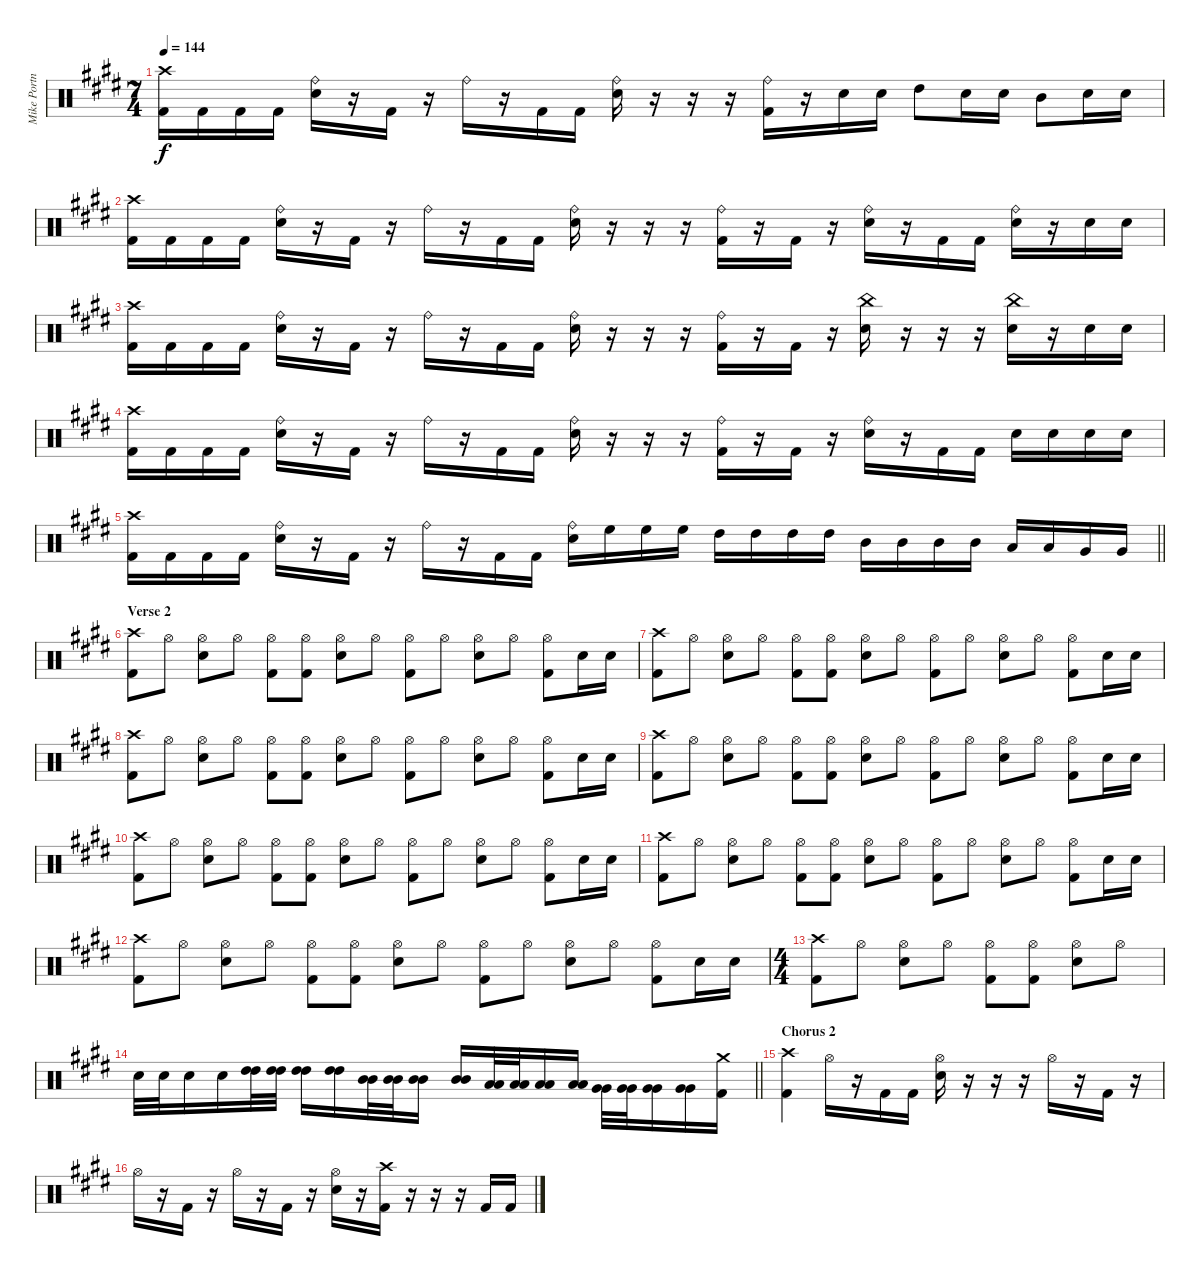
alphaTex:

\track ("Mike Portnoy" "Mike Portn") {instrument percussion}
\staff {score}
\articulation defaults
\ts (7 4)
\tempo 144
\clef neutral
\ks e
("Crash high (hit)" "Kick (hit) 2").16{dy f} "Kick (hit) 2".16 "Kick (hit) 2".16 "Kick (hit) 2".16 ("Ride (bell)" "Snare (hit) 2").16 r.16 "Kick (hit) 2".16 r.16 "Ride (bell)".16 r.16 "Kick (hit) 2".16 "Kick (hit) 2".16 ("Ride (bell)" "Snare (hit) 2").16 r.16 r.16 r.16 ("Ride (bell)" "Kick (hit) 2").16 r.16 "Snare (hit) 2".16 "Snare (hit) 2".16 "High Tom (hit)".8 "Snare (hit) 2".16 "Snare (hit) 2".16 "Mid Tom (hit)".8 "Snare (hit) 2".16 "Snare (hit) 2".16 |
("Crash high (hit)" "Kick (hit) 2").16 "Kick (hit) 2".16 "Kick (hit) 2".16 "Kick (hit) 2".16 ("Ride (bell)" "Snare (hit) 2").16 r.16 "Kick (hit) 2".16 r.16 "Ride (bell)".16 r.16 "Kick (hit) 2".16 "Kick (hit) 2".16 ("Ride (bell)" "Snare (hit) 2").16 r.16 r.16 r.16 ("Ride (bell)" "Kick (hit) 2").16 r.16 "Kick (hit) 2".16 r.16 ("Ride (bell)" "Snare (hit) 2").16 r.16 "Kick (hit) 2".16 "Kick (hit) 2".16 ("Ride (bell)" "Snare (hit) 2").16 r.16 "Snare (hit) 2".16 "Snare (hit) 2".16 |
("Crash high (hit)" "Kick (hit) 2").16 "Kick (hit) 2".16 "Kick (hit) 2".16 "Kick (hit) 2".16 ("Ride (bell)" "Snare (hit) 2").16 r.16 "Kick (hit) 2".16 r.16 "Ride (bell)".16 r.16 "Kick (hit) 2".16 "Kick (hit) 2".16 ("Ride (bell)" "Snare (hit) 2").16 r.16 r.16 r.16 ("Ride (bell)" "Kick (hit) 2").16 r.16 "Kick (hit) 2".16 r.16 ("China (hit)" "Snare (hit) 2").16 r.16 r.16 r.16 ("China (hit)" "Snare (hit) 2").16 r.16 "Snare (hit) 2".16 "Snare (hit) 2".16 |
("Crash high (hit)" "Kick (hit) 2").16 "Kick (hit) 2".16 "Kick (hit) 2".16 "Kick (hit) 2".16 ("Ride (bell)" "Snare (hit) 2").16 r.16 "Kick (hit) 2".16 r.16 "Ride (bell)".16 r.16 "Kick (hit) 2".16 "Kick (hit) 2".16 ("Ride (bell)" "Snare (hit) 2").16 r.16 r.16 r.16 ("Ride (bell)" "Kick (hit) 2").16 r.16 "Kick (hit) 2".16 r.16 ("Ride (bell)" "Snare (hit) 2").16 r.16 "Kick (hit) 2".16 "Kick (hit) 2".16 "Snare (hit) 2".16 "Snare (hit) 2".16 "Snare (hit) 2".16 "Snare (hit) 2".16 |
\barLineRight lightlight
("Crash high (hit)" "Kick (hit) 2").16 "Kick (hit) 2".16 "Kick (hit) 2".16 "Kick (hit) 2".16 ("Ride (bell)" "Snare (hit) 2").16 r.16 "Kick (hit) 2".16 r.16 "Ride (bell)".16 r.16 "Kick (hit) 2".16 "Kick (hit) 2".16 ("Ride (bell)" "Snare (hit) 2").16 "High Floor Tom (hit)".16 "High Floor Tom (hit)".16 "High Floor Tom (hit)".16 "High Tom (hit)".16 "High Tom (hit)".16 "High Tom (hit)".16 "High Tom (hit)".16 "Mid Tom (hit)".16 "Mid Tom (hit)".16 "Mid Tom (hit)".16 "Mid Tom (hit)".16 "Low Tom (hit)".16 "Low Tom (hit)".16 "Very Low Tom (hit)".16 "Very Low Tom (hit)".16 |
\section ("" "Verse 2")
("Kick (hit) 2" "Crash high (hit)").8 "Hi-Hat (open)".8 ("Snare (hit) 2" "Hi-Hat (open)").8 "Hi-Hat (open)".8 ("Kick (hit) 2" "Hi-Hat (open)").8 ("Kick (hit) 2" "Hi-Hat (open)").8 ("Snare (hit) 2" "Hi-Hat (open)").8 "Hi-Hat (open)".8 ("Kick (hit) 2" "Hi-Hat (open)").8 "Hi-Hat (open)".8 ("Snare (hit) 2" "Hi-Hat (open)").8 "Hi-Hat (open)".8 ("Kick (hit) 2" "Hi-Hat (open)").8 "Snare (hit) 2".16 "Snare (hit) 2".16 |
("Kick (hit) 2" "Crash high (hit)").8 "Hi-Hat (open)".8 ("Snare (hit) 2" "Hi-Hat (open)").8 "Hi-Hat (open)".8 ("Kick (hit) 2" "Hi-Hat (open)").8 ("Kick (hit) 2" "Hi-Hat (open)").8 ("Snare (hit) 2" "Hi-Hat (open)").8 "Hi-Hat (open)".8 ("Kick (hit) 2" "Hi-Hat (open)").8 "Hi-Hat (open)".8 ("Snare (hit) 2" "Hi-Hat (open)").8 "Hi-Hat (open)".8 ("Kick (hit) 2" "Hi-Hat (open)").8 "Snare (hit) 2".16 "Snare (hit) 2".16 |
("Kick (hit) 2" "Crash high (hit)").8 "Hi-Hat (open)".8 ("Snare (hit) 2" "Hi-Hat (open)").8 "Hi-Hat (open)".8 ("Kick (hit) 2" "Hi-Hat (open)").8 ("Kick (hit) 2" "Hi-Hat (open)").8 ("Snare (hit) 2" "Hi-Hat (open)").8 "Hi-Hat (open)".8 ("Kick (hit) 2" "Hi-Hat (open)").8 "Hi-Hat (open)".8 ("Snare (hit) 2" "Hi-Hat (open)").8 "Hi-Hat (open)".8 ("Kick (hit) 2" "Hi-Hat (open)").8 "Snare (hit) 2".16 "Snare (hit) 2".16 |
("Kick (hit) 2" "Crash high (hit)").8 "Hi-Hat (open)".8 ("Snare (hit) 2" "Hi-Hat (open)").8 "Hi-Hat (open)".8 ("Kick (hit) 2" "Hi-Hat (open)").8 ("Kick (hit) 2" "Hi-Hat (open)").8 ("Snare (hit) 2" "Hi-Hat (open)").8 "Hi-Hat (open)".8 ("Kick (hit) 2" "Hi-Hat (open)").8 "Hi-Hat (open)".8 ("Snare (hit) 2" "Hi-Hat (open)").8 "Hi-Hat (open)".8 ("Kick (hit) 2" "Hi-Hat (open)").8 "Snare (hit) 2".16 "Snare (hit) 2".16 |
("Kick (hit) 2" "Crash high (hit)").8 "Hi-Hat (open)".8 ("Snare (hit) 2" "Hi-Hat (open)").8 "Hi-Hat (open)".8 ("Kick (hit) 2" "Hi-Hat (open)").8 ("Kick (hit) 2" "Hi-Hat (open)").8 ("Snare (hit) 2" "Hi-Hat (open)").8 "Hi-Hat (open)".8 ("Kick (hit) 2" "Hi-Hat (open)").8 "Hi-Hat (open)".8 ("Snare (hit) 2" "Hi-Hat (open)").8 "Hi-Hat (open)".8 ("Kick (hit) 2" "Hi-Hat (open)").8 "Snare (hit) 2".16 "Snare (hit) 2".16 |
("Kick (hit) 2" "Crash high (hit)").8 "Hi-Hat (open)".8 ("Snare (hit) 2" "Hi-Hat (open)").8 "Hi-Hat (open)".8 ("Kick (hit) 2" "Hi-Hat (open)").8 ("Kick (hit) 2" "Hi-Hat (open)").8 ("Snare (hit) 2" "Hi-Hat (open)").8 "Hi-Hat (open)".8 ("Kick (hit) 2" "Hi-Hat (open)").8 "Hi-Hat (open)".8 ("Snare (hit) 2" "Hi-Hat (open)").8 "Hi-Hat (open)".8 ("Kick (hit) 2" "Hi-Hat (open)").8 "Snare (hit) 2".16 "Snare (hit) 2".16 |
("Kick (hit) 2" "Crash high (hit)").8 "Hi-Hat (open)".8 ("Snare (hit) 2" "Hi-Hat (open)").8 "Hi-Hat (open)".8 ("Kick (hit) 2" "Hi-Hat (open)").8 ("Kick (hit) 2" "Hi-Hat (open)").8 ("Snare (hit) 2" "Hi-Hat (open)").8 "Hi-Hat (open)".8 ("Kick (hit) 2" "Hi-Hat (open)").8 "Hi-Hat (open)".8 ("Snare (hit) 2" "Hi-Hat (open)").8 "Hi-Hat (open)".8 ("Kick (hit) 2" "Hi-Hat (open)").8 "Snare (hit) 2".16 "Snare (hit) 2".16 |
\ts (4 4)
("Kick (hit) 2" "Crash high (hit)").8 "Hi-Hat (open)".8 ("Snare (hit) 2" "Hi-Hat (open)").8 "Hi-Hat (open)".8 ("Kick (hit) 2" "Hi-Hat (open)").8 ("Kick (hit) 2" "Hi-Hat (open)").8 ("Snare (hit) 2" "Hi-Hat (open)").8 "Hi-Hat (open)".8 |
\barLineRight lightlight "Snare (hit) 2".32 "Snare (hit) 2".32 "Snare (hit) 2".16 "Snare (hit) 2".16
("High Tom (hit)" "High Tom (hit)").32 ("High Tom (hit)" "High Tom (hit)").32 ("High Tom (hit)" "High Tom (hit)").16 ("High Tom (hit)" "High Tom (hit)").16 ("Mid Tom (hit)" "Mid Tom (hit)").32 ("Mid Tom (hit)" "Mid Tom (hit)").32 ("Mid Tom (hit)" "Mid Tom (hit)").16 ("Mid Tom (hit)" "Mid Tom (hit)").16 ("Low Tom (hit)" "Low Tom (hit)").32 ("Low Tom (hit)" "Low Tom (hit)").32 ("Low Tom (hit)" "Low Tom (hit)").16 ("Low Tom (hit)" "Low Tom (hit)").16 ("Very Low Tom (hit)" "Very Low Tom (hit)").32 ("Very Low Tom (hit)" "Very Low Tom (hit)").32 ("Very Low Tom (hit)" "Very Low Tom (hit)").16 ("Very Low Tom (hit)" "Very Low Tom (hit)").16 ("Crash medium (hit)" "Kick (hit) 2").16 |
\section ("" "Chorus 2")
("Kick (hit) 2" "Crash high (hit)").4 "Hi-Hat (open)".16 r.16 "Kick (hit) 2".16 "Kick (hit) 2".16 ("Snare (hit) 2" "Hi-Hat (open)").16 r.16 r.16 r.16 "Hi-Hat (open)".16 r.16 "Kick (hit) 2".16 r.16 |
"Hi-Hat (open)".16 r.16 "Kick (hit) 2".16 r.16 "Hi-Hat (open)".16 r.16 "Kick (hit) 2".16 r.16 ("Snare (hit) 2" "Hi-Hat (open)").16 r.16 ("Crash high (hit)" "Kick (hit) 2").16 r.16 r.16 r.16 "Kick (hit) 2".16 "Kick (hit) 2".16
